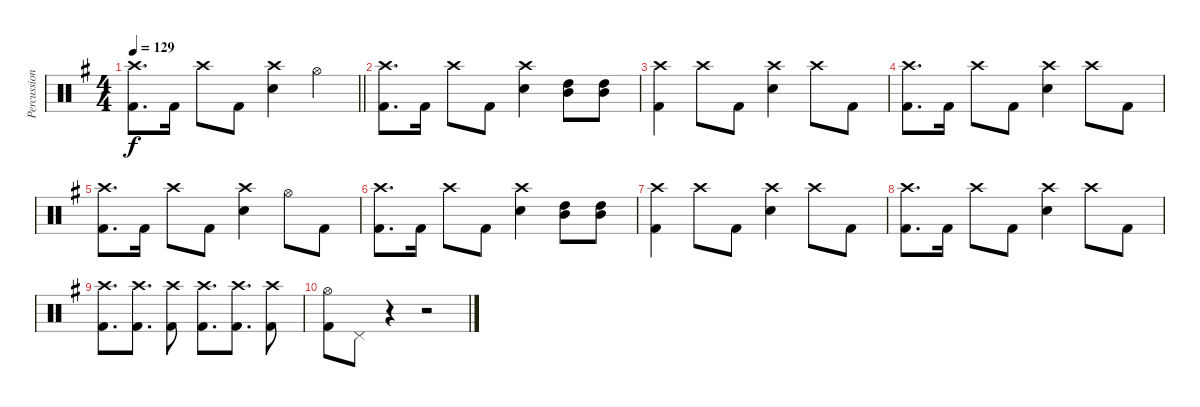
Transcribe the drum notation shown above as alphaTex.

\track ("Percussion" "Percussion") {instrument percussion}
\staff {score}
\articulation defaults
\ts (4 4)
\tempo 129
\clef neutral
\barLineRight lightlight
\ks g
("Kick (hit) 2" "Crash high (hit)").8{d dy f} "Kick (hit) 2".16 "Crash high (hit)".8 "Kick (hit) 2".8 ("Electric Snare (hit)" "Crash high (hit)").4 "Hi-Hat (open)".4 |
("Kick (hit) 2" "Crash high (hit)").8{d} "Kick (hit) 2".16 "Crash high (hit)".8 "Kick (hit) 2".8 ("Electric Snare (hit)" "Crash high (hit)").4 ("Mid Tom (hit)" "High Tom (hit)").8 ("Mid Tom (hit)" "High Tom (hit)").8 |
("Kick (hit) 2" "Crash high (hit)").4 "Crash high (hit)".8 "Kick (hit) 2".8 ("Electric Snare (hit)" "Crash high (hit)").4 "Crash high (hit)".8 "Kick (hit) 2".8 |
("Kick (hit) 2" "Crash high (hit)").8{d} "Kick (hit) 2".16 "Crash high (hit)".8 "Kick (hit) 2".8 ("Electric Snare (hit)" "Crash high (hit)").4 "Crash high (hit)".8 "Kick (hit) 2".8 |
("Kick (hit) 2" "Crash high (hit)").8{d} "Kick (hit) 2".16 "Crash high (hit)".8 "Kick (hit) 2".8 ("Electric Snare (hit)" "Crash high (hit)").4 "Hi-Hat (open)".8 "Kick (hit) 2".8 |
("Kick (hit) 2" "Crash high (hit)").8{d} "Kick (hit) 2".16 "Crash high (hit)".8 "Kick (hit) 2".8 ("Electric Snare (hit)" "Crash high (hit)").4 ("Mid Tom (hit)" "High Tom (hit)").8 ("Mid Tom (hit)" "High Tom (hit)").8 |
("Kick (hit) 2" "Crash high (hit)").4 "Crash high (hit)".8 "Kick (hit) 2".8 ("Electric Snare (hit)" "Crash high (hit)").4 "Crash high (hit)".8 "Kick (hit) 2".8 |
("Kick (hit) 2" "Crash high (hit)").8{d} "Kick (hit) 2".16 "Crash high (hit)".8 "Kick (hit) 2".8 ("Electric Snare (hit)" "Crash high (hit)").4 "Crash high (hit)".8 "Kick (hit) 2".8 |
("Crash high (hit)" "Kick (hit) 2").8{d} ("Crash high (hit)" "Kick (hit) 2").8{d} ("Crash high (hit)" "Kick (hit) 2").8 ("Kick (hit) 2" "Crash high (hit)").8{d} ("Kick (hit) 2" "Crash high (hit)").8{d} ("Crash high (hit)" "Kick (hit) 2").8 |
("Kick (hit) 2" "Hi-Hat (open)").8 "Pedal Hi-Hat (hit)".8 r.4 r.2
